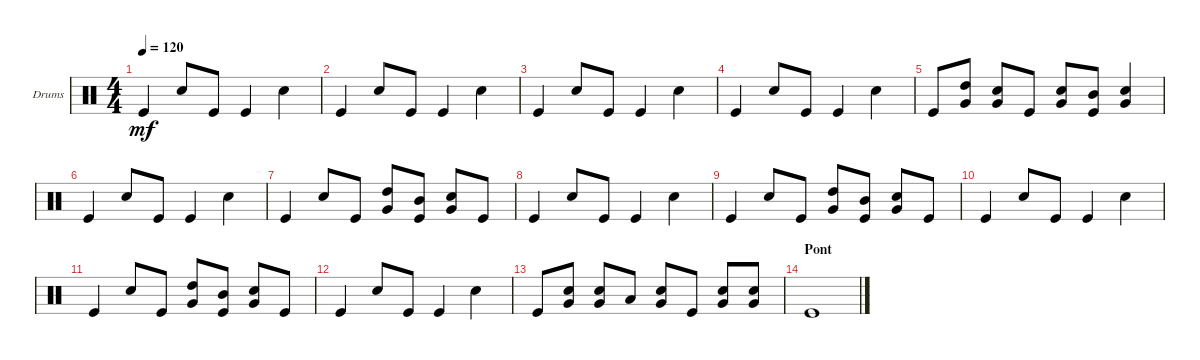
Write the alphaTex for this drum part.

\defaultSystemsLayout 4
\bracketExtendMode groupsimilarinstruments
\firstSystemTrackNameOrientation horizontal
\otherSystemsTrackNameOrientation horizontal
\track ("Drumkit" "Drums") {multiBarRest instrument percussion}
\staff {score}
\articulation defaults
\ts (4 4)
\tempo 120
\clef neutral
\ks c "Kick (hit)".4{dy mf} "Snare (hit) 2".8 "Kick (hit)".8 "Kick (hit)".4 "Snare (hit) 2".4
|
"Kick (hit)".4 "Snare (hit) 2".8 "Kick (hit)".8 "Kick (hit)".4 "Snare (hit) 2".4 |
"Kick (hit)".4 "Snare (hit) 2".8 "Kick (hit)".8 "Kick (hit)".4 "Snare (hit) 2".4 |
"Kick (hit)".4 "Snare (hit) 2".8 "Kick (hit)".8 "Kick (hit)".4 "Snare (hit) 2".4 |
"Kick (hit)".8 ("High Tom (hit)" "Very Low Tom (hit)").8 ("Snare (hit) 2" "Very Low Tom (hit)").8 "Kick (hit)".8 ("Snare (hit) 2" "Very Low Tom (hit)").8 ("Kick (hit)" "Mid Tom (hit)").8 ("Snare (hit) 2" "Very Low Tom (hit)").4 |
"Kick (hit)".4 "Snare (hit) 2".8 "Kick (hit)".8 "Kick (hit)".4 "Snare (hit) 2".4 |
"Kick (hit)".4 "Snare (hit) 2".8 "Kick (hit)".8 ("High Tom (hit)" "Very Low Tom (hit)").8 ("Kick (hit)" "Mid Tom (hit)").8 ("Snare (hit) 2" "Very Low Tom (hit)").8 "Kick (hit)".8 |
"Kick (hit)".4 "Snare (hit) 2".8 "Kick (hit)".8 "Kick (hit)".4 "Snare (hit) 2".4 |
"Kick (hit)".4 "Snare (hit) 2".8 "Kick (hit)".8 ("High Tom (hit)" "Very Low Tom (hit)").8 ("Kick (hit)" "Mid Tom (hit)").8 ("Snare (hit) 2" "Very Low Tom (hit)").8 "Kick (hit)".8 |
"Kick (hit)".4 "Snare (hit) 2".8 "Kick (hit)".8 "Kick (hit)".4 "Snare (hit) 2".4 |
"Kick (hit)".4 "Snare (hit) 2".8 "Kick (hit)".8 ("High Tom (hit)" "Very Low Tom (hit)").8 ("Kick (hit)" "Mid Tom (hit)").8 ("Snare (hit) 2" "Very Low Tom (hit)").8 "Kick (hit)".8 |
"Kick (hit)".4 "Snare (hit) 2".8 "Kick (hit)".8 "Kick (hit)".4 "Snare (hit) 2".4 |
"Kick (hit)".8 ("Snare (hit) 2" "Very Low Tom (hit)").8 ("Snare (hit) 2" "Very Low Tom (hit)").8 "Low Tom (hit)".8 ("Snare (hit) 2" "Very Low Tom (hit)").8 "Kick (hit)".8 ("Snare (hit) 2" "Very Low Tom (hit)").8 ("Snare (hit) 2" "Very Low Tom (hit)").8 |
\section ("" "Pont")
"Kick (hit)".1
